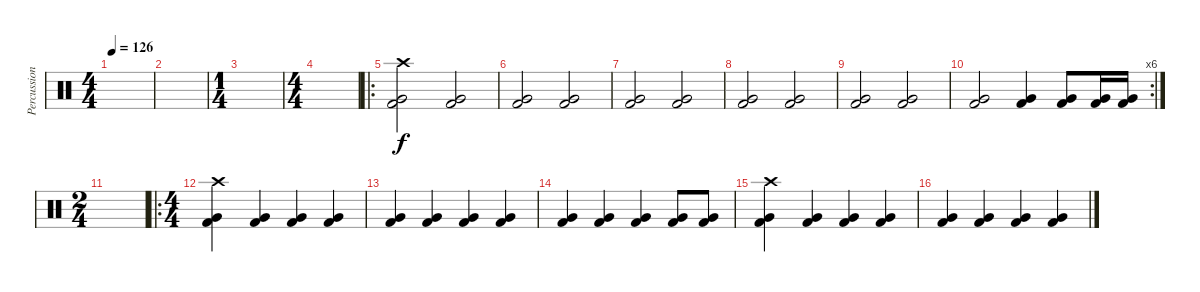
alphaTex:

\track ("Percussion" "Percussion") {instrument percussion}
\staff {score}
\articulation defaults
\ts (4 4)
\tempo 126
\clef neutral
\ks c
|
|
\ts (1 4)
|
\ts (4 4)
|
\ro
("Crash high (hit)" "Very Low Tom (hit)" "Kick (hit) 2").2 ("Very Low Tom (hit)" "Kick (hit) 2").2 |
("Very Low Tom (hit)" "Kick (hit) 2").2 ("Very Low Tom (hit)" "Kick (hit) 2").2 |
("Very Low Tom (hit)" "Kick (hit) 2").2 ("Very Low Tom (hit)" "Kick (hit) 2").2 |
("Very Low Tom (hit)" "Kick (hit) 2").2 ("Very Low Tom (hit)" "Kick (hit) 2").2 |
("Very Low Tom (hit)" "Kick (hit) 2").2 ("Very Low Tom (hit)" "Kick (hit) 2").2 |
\rc 6
("Very Low Tom (hit)" "Kick (hit) 2").2 ("Very Low Tom (hit)" "Kick (hit) 2").4 ("Very Low Tom (hit)" "Kick (hit) 2").8 ("Very Low Tom (hit)" "Kick (hit) 2").16 ("Very Low Tom (hit)" "Kick (hit) 2").16 |
\ts (2 4)
|
\ro
\ts (4 4)
("Crash high (hit)" "Very Low Tom (hit)" "Kick (hit) 2").4 ("Very Low Tom (hit)" "Kick (hit) 2").4 ("Very Low Tom (hit)" "Kick (hit) 2").4 ("Very Low Tom (hit)" "Kick (hit) 2").4 |
("Very Low Tom (hit)" "Kick (hit) 2").4 ("Very Low Tom (hit)" "Kick (hit) 2").4 ("Very Low Tom (hit)" "Kick (hit) 2").4 ("Very Low Tom (hit)" "Kick (hit) 2").4 |
("Very Low Tom (hit)" "Kick (hit) 2").4 ("Very Low Tom (hit)" "Kick (hit) 2").4 ("Very Low Tom (hit)" "Kick (hit) 2").4 ("Very Low Tom (hit)" "Kick (hit) 2").8 ("Very Low Tom (hit)" "Kick (hit) 2").8 |
("Crash high (hit)" "Very Low Tom (hit)" "Kick (hit) 2").4 ("Very Low Tom (hit)" "Kick (hit) 2").4 ("Very Low Tom (hit)" "Kick (hit) 2").4 ("Very Low Tom (hit)" "Kick (hit) 2").4 |
("Very Low Tom (hit)" "Kick (hit) 2").4 ("Very Low Tom (hit)" "Kick (hit) 2").4 ("Very Low Tom (hit)" "Kick (hit) 2").4 ("Very Low Tom (hit)" "Kick (hit) 2").4
